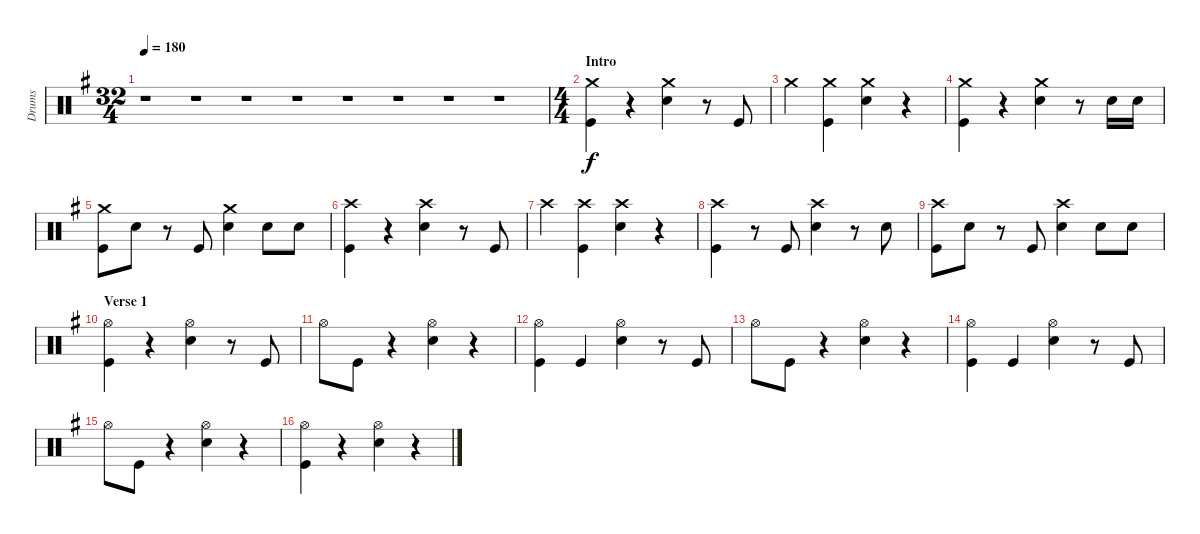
\track ("Drums" "Drums") {instrument percussion}
\staff {score}
\articulation defaults
\ts (32 4)
\tempo 180
\clef neutral
\ks eminor
r.1{dy f} r.1 r.1 r.1 r.1 r.1 r.1 r.1 |
\ts (4 4)
\section ("" "Intro")
("Crash medium (hit)" "Kick (hit)").4 r.4 ("Crash medium (hit)" "Snare (hit) 2").4 r.8 "Kick (hit)".8 |
"Crash medium (hit)".4 ("Crash medium (hit)" "Kick (hit)").4 ("Crash medium (hit)" "Snare (hit) 2").4 r.4 |
("Crash medium (hit)" "Kick (hit)").4 r.4 ("Crash medium (hit)" "Snare (hit) 2").4 r.8 "Snare (hit) 2".16 "Snare (hit) 2".16 |
("Crash medium (hit)" "Kick (hit)").8 "Snare (hit) 2".8 r.8 "Kick (hit)".8 ("Crash medium (hit)" "Snare (hit) 2").4 "Snare (hit) 2".8 "Snare (hit) 2".8 |
("Crash high (hit)" "Kick (hit)").4 r.4 ("Crash high (hit)" "Snare (hit) 2").4 r.8 "Kick (hit)".8 |
"Crash high (hit)".4 ("Crash high (hit)" "Kick (hit)").4 ("Crash high (hit)" "Snare (hit) 2").4 r.4 |
("Crash high (hit)" "Kick (hit)").4 r.8 "Kick (hit)".8 ("Crash high (hit)" "Snare (hit) 2").4 r.8 "Snare (hit) 2".8 |
("Crash high (hit)" "Kick (hit)").8 "Snare (hit) 2".8 r.8 "Kick (hit)".8 ("Crash high (hit)" "Snare (hit) 2").4 "Snare (hit) 2".8 "Snare (hit) 2".8 |
\section ("" "Verse 1")
("Hi-Hat (open)" "Kick (hit)").4 r.4 ("Hi-Hat (open)" "Snare (hit) 2").4 r.8 "Kick (hit)".8 |
"Hi-Hat (open)".8 "Kick (hit)".8 r.4 ("Hi-Hat (open)" "Snare (hit) 2").4 r.4 |
("Hi-Hat (open)" "Kick (hit)").4 "Kick (hit)".4 ("Hi-Hat (open)" "Snare (hit) 2").4 r.8 "Kick (hit)".8 |
"Hi-Hat (open)".8 "Kick (hit)".8 r.4 ("Hi-Hat (open)" "Snare (hit) 2").4 r.4 |
("Hi-Hat (open)" "Kick (hit)").4 "Kick (hit)".4 ("Hi-Hat (open)" "Snare (hit) 2").4 r.8 "Kick (hit)".8 |
"Hi-Hat (open)".8 "Kick (hit)".8 r.4 ("Hi-Hat (open)" "Snare (hit) 2").4 r.4 |
("Hi-Hat (open)" "Kick (hit)").4 r.4 ("Hi-Hat (open)" "Snare (hit) 2").4 r.4
